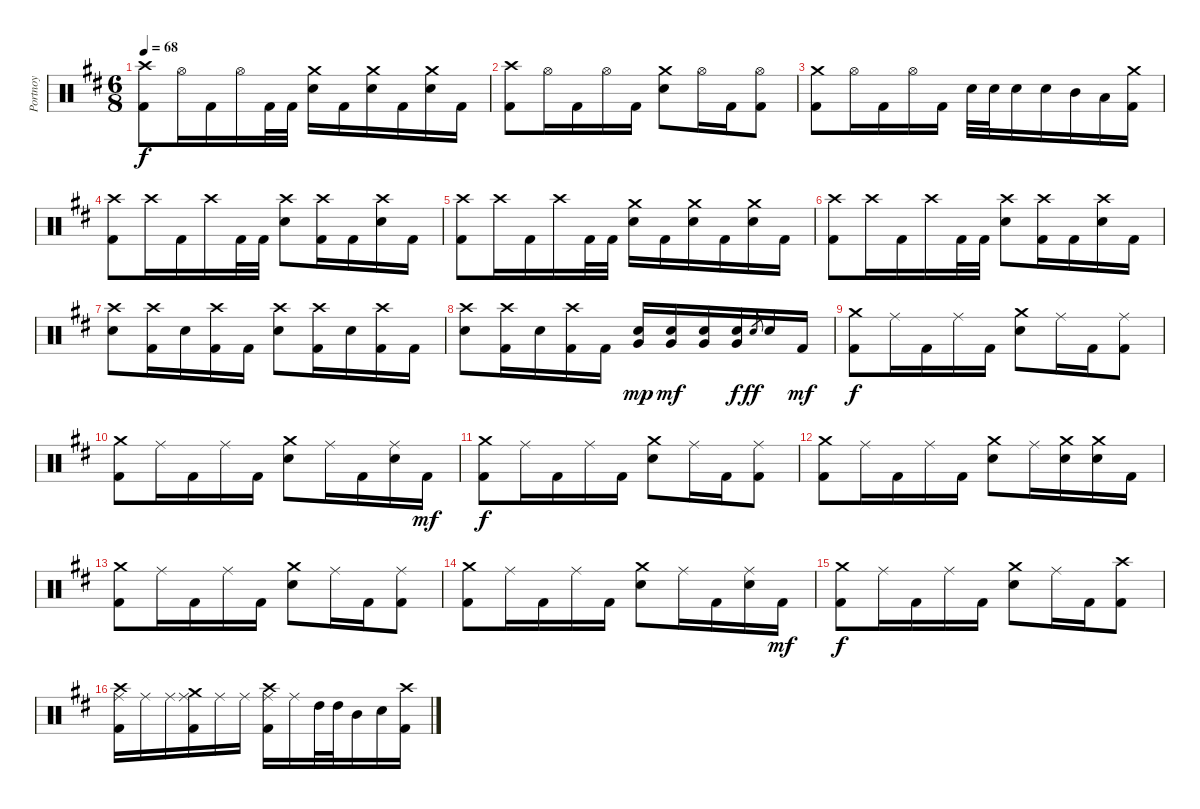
\track ("Portnoy" "Portnoy") {instrument percussion}
\staff {score}
\articulation defaults
\ts (6 8)
\tempo 68
\clef neutral
\ks d
("Crash high (hit)" "Kick (hit) 2").8{dy f} "Hi-Hat (open)".16 "Kick (hit) 2".16 "Hi-Hat (open)".16 "Kick (hit) 2".32 "Kick (hit) 2".32 ("Crash medium (hit)" "Snare (hit) 2").16 "Kick (hit) 2".16 ("Crash medium (hit)" "Snare (hit) 2").16 "Kick (hit) 2".16 ("Crash medium (hit)" "Snare (hit) 2").16 "Kick (hit) 2".16 |
("Crash high (hit)" "Kick (hit) 2").8 "Hi-Hat (open)".16 "Kick (hit) 2".16 "Hi-Hat (open)".16 "Kick (hit) 2".16 ("Crash medium (hit)" "Snare (hit) 2").8 "Hi-Hat (open)".16 "Kick (hit) 2".16 ("Hi-Hat (open)" "Kick (hit) 2").8 |
("Crash medium (hit)" "Kick (hit) 2").8 "Hi-Hat (open)".16 "Kick (hit) 2".16 "Hi-Hat (open)".16 "Kick (hit) 2".16 "Snare (hit) 2".32 "Snare (hit) 2".32 "Snare (hit) 2".16 "Snare (hit) 2".16 "Mid Tom (hit)".16 "Low Tom (hit)".16 ("Kick (hit) 2" "Crash medium (hit)").16 |
("Crash high (hit)" "Kick (hit) 2").8 "Crash high (hit)".16 "Kick (hit) 2".16 "Crash high (hit)".16 "Kick (hit) 2".32 "Kick (hit) 2".32 ("Crash high (hit)" "Snare (hit) 2").8 ("Crash high (hit)" "Kick (hit) 2").16 "Kick (hit) 2".16 ("Crash high (hit)" "Snare (hit) 2").16 "Kick (hit) 2".16 |
("Crash high (hit)" "Kick (hit) 2").8 "Crash high (hit)".16 "Kick (hit) 2".16 "Crash high (hit)".16 "Kick (hit) 2".32 "Kick (hit) 2".32 ("Crash medium (hit)" "Snare (hit) 2").16 "Kick (hit) 2".16 ("Snare (hit) 2" "Crash medium (hit)").16 "Kick (hit) 2".16 ("Snare (hit) 2" "Crash medium (hit)").16 "Kick (hit) 2".16 |
("Crash high (hit)" "Kick (hit) 2").8 "Crash high (hit)".16 "Kick (hit) 2".16 "Crash high (hit)".16 "Kick (hit) 2".32 "Kick (hit) 2".32 ("Crash high (hit)" "Snare (hit) 2").8 ("Crash high (hit)" "Kick (hit) 2").16 "Kick (hit) 2".16 ("Crash high (hit)" "Snare (hit) 2").16 "Kick (hit) 2".16 |
("Crash high (hit)" "Snare (hit) 2").8 ("Kick (hit) 2" "Crash high (hit)").16 "Snare (hit) 2".16 ("Kick (hit) 2" "Crash high (hit)").16 "Kick (hit) 2".16 ("Crash high (hit)" "Snare (hit) 2").8 ("Kick (hit) 2" "Crash high (hit)").16 "Snare (hit) 2".16 ("Kick (hit) 2" "Crash high (hit)").16 "Kick (hit) 2".16 |
("Crash high (hit)" "Snare (hit) 2").8 ("Kick (hit) 2" "Crash high (hit)").16 "Snare (hit) 2".16 ("Kick (hit) 2" "Crash high (hit)").16 "Kick (hit) 2".16 ("Snare (hit) 2" "Very Low Tom (hit)").16{dy mp} ("Snare (hit) 2" "Very Low Tom (hit)").16{dy mf} ("Snare (hit) 2" "Very Low Tom (hit)").16 ("Snare (hit) 2" "Very Low Tom (hit)").16{dy f} "Snare (hit) 2".8{gr dy ff} "Snare (hit) 2".16 "Kick (hit) 2".16{dy mf} |
("Crash medium (hit)" "Kick (hit) 2").8{dy f} "Ride (middle)".16 "Kick (hit) 2".16 "Ride (middle)".16 "Kick (hit) 2".16 ("Crash medium (hit)" "Snare (hit) 2").8 "Ride (middle)".16 "Kick (hit) 2".16 ("Ride (middle)" "Kick (hit) 2").8 |
("Crash medium (hit)" "Kick (hit) 2").8 "Ride (middle)".16 "Kick (hit) 2".16 "Ride (middle)".16 "Kick (hit) 2".16 ("Crash medium (hit)" "Snare (hit) 2").8 "Ride (middle)".16 "Kick (hit) 2".16 ("Ride (middle)" "Snare (hit) 2").16 "Kick (hit) 2".16{dy mf} |
("Crash medium (hit)" "Kick (hit) 2").8{dy f} "Ride (middle)".16 "Kick (hit) 2".16 "Ride (middle)".16 "Kick (hit) 2".16 ("Crash medium (hit)" "Snare (hit) 2").8 "Ride (middle)".16 "Kick (hit) 2".16 ("Ride (middle)" "Kick (hit) 2").8 |
("Crash medium (hit)" "Kick (hit) 2").8 "Ride (middle)".16 "Kick (hit) 2".16 "Ride (middle)".16 "Kick (hit) 2".16 ("Crash medium (hit)" "Snare (hit) 2").8 "Ride (middle)".16 ("Snare (hit) 2" "Crash medium (hit)").16 ("Crash medium (hit)" "Snare (hit) 2").16 "Kick (hit) 2".16 |
("Crash medium (hit)" "Kick (hit) 2").8 "Ride (middle)".16 "Kick (hit) 2".16 "Ride (middle)".16 "Kick (hit) 2".16 ("Crash medium (hit)" "Snare (hit) 2").8 "Ride (middle)".16 "Kick (hit) 2".16 ("Ride (middle)" "Kick (hit) 2").8 |
("Crash medium (hit)" "Kick (hit) 2").8 "Ride (middle)".16 "Kick (hit) 2".16 "Ride (middle)".16 "Kick (hit) 2".16 ("Crash medium (hit)" "Snare (hit) 2").8 "Ride (middle)".16 "Kick (hit) 2".16 ("Ride (middle)" "Snare (hit) 2").16 "Kick (hit) 2".16{dy mf} |
("Crash medium (hit)" "Kick (hit) 2").8{dy f} "Ride (middle)".16 "Kick (hit) 2".16 "Ride (middle)".16 "Kick (hit) 2".16 ("Crash medium (hit)" "Snare (hit) 2").8 "Ride (middle)".16 "Kick (hit) 2".16 ("Crash high (hit)" "Kick (hit) 2").8 |
("Crash high (hit)" "Kick (hit) 2" "Ride (middle)").16 "Ride (middle)".16 "Ride (middle)".16 ("Kick (hit) 2" "Crash medium (hit)" "Ride (middle)").16 "Ride (middle)".16 "Ride (middle)".16 ("Crash high (hit)" "Kick (hit) 2" "Ride (middle)").16 "Ride (middle)".16 "High Tom (hit)".32 "High Tom (hit)".32 "Mid Tom (hit)".16 "Snare (hit) 2".16 ("Crash high (hit)" "Kick (hit) 2").16
